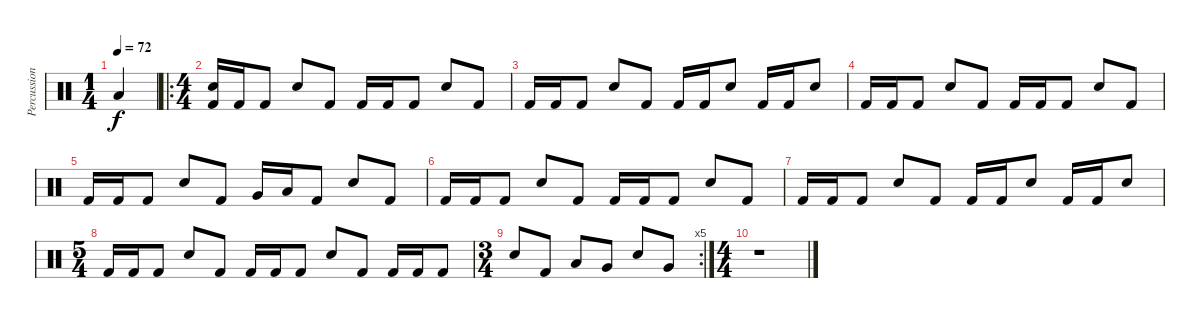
\track ("Percussion" "Percussion") {instrument percussion}
\staff {score}
\articulation defaults
\ts (1 4)
\tempo 72
\clef neutral
\ks c "Low Floor Tom (hit)".4{dy f}
|
\ro
\ts (4 4)
("Snare (hit) 2" "Kick (hit) 2").16 "Kick (hit) 2".16 "Kick (hit) 2".8 "Snare (hit) 2".8 "Kick (hit) 2".8 "Kick (hit) 2".16 "Kick (hit) 2".16 "Kick (hit) 2".8 "Snare (hit) 2".8 "Kick (hit) 2".8 |
"Kick (hit) 2".16 "Kick (hit) 2".16 "Kick (hit) 2".8 "Snare (hit) 2".8 "Kick (hit) 2".8 "Kick (hit) 2".16 "Kick (hit) 2".16 "Snare (hit) 2".8 "Kick (hit) 2".16 "Kick (hit) 2".16 "Snare (hit) 2".8 |
"Kick (hit) 2".16 "Kick (hit) 2".16 "Kick (hit) 2".8 "Snare (hit) 2".8 "Kick (hit) 2".8 "Kick (hit) 2".16 "Kick (hit) 2".16 "Kick (hit) 2".8 "Snare (hit) 2".8 "Kick (hit) 2".8 |
"Kick (hit) 2".16 "Kick (hit) 2".16 "Kick (hit) 2".8 "Snare (hit) 2".8 "Kick (hit) 2".8 "Very Low Tom (hit)".16 "Low Floor Tom (hit)".16 "Kick (hit) 2".8 "Snare (hit) 2".8 "Kick (hit) 2".8 |
"Kick (hit) 2".16 "Kick (hit) 2".16 "Kick (hit) 2".8 "Snare (hit) 2".8 "Kick (hit) 2".8 "Kick (hit) 2".16 "Kick (hit) 2".16 "Kick (hit) 2".8 "Snare (hit) 2".8 "Kick (hit) 2".8 |
"Kick (hit) 2".16 "Kick (hit) 2".16 "Kick (hit) 2".8 "Snare (hit) 2".8 "Kick (hit) 2".8 "Kick (hit) 2".16 "Kick (hit) 2".16 "Snare (hit) 2".8 "Kick (hit) 2".16 "Kick (hit) 2".16 "Snare (hit) 2".8 |
\ts (5 4)
"Kick (hit) 2".16 "Kick (hit) 2".16 "Kick (hit) 2".8 "Snare (hit) 2".8 "Kick (hit) 2".8 "Kick (hit) 2".16 "Kick (hit) 2".16 "Kick (hit) 2".8 "Snare (hit) 2".8 "Kick (hit) 2".8 "Kick (hit) 2".16 "Kick (hit) 2".16 "Kick (hit) 2".8 |
\rc 5
\ts (3 4)
"Snare (hit) 2".8 "Kick (hit) 2".8 "Low Floor Tom (hit)".8 "Very Low Tom (hit)".8 "Snare (hit) 2".8 "Very Low Tom (hit)".8 |
\ts (4 4)
r.1
